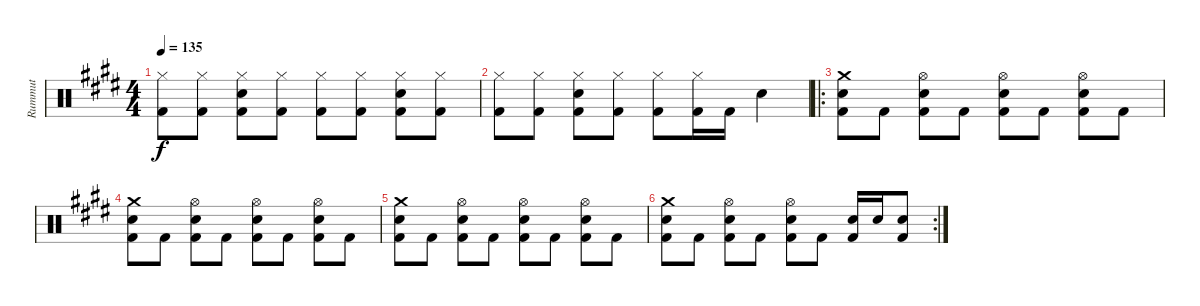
\track ("Rummut" "Rummut") {instrument percussion}
\staff {score}
\articulation defaults
\ts (4 4)
\tempo 135
\clef neutral
\ks e
("Hi-Hat (closed)" "Kick (hit) 2").8{dy f} ("Hi-Hat (closed)" "Kick (hit) 2").8 ("Hi-Hat (closed)" "Snare (hit) 2" "Kick (hit) 2").8 ("Hi-Hat (closed)" "Kick (hit) 2").8 ("Hi-Hat (closed)" "Kick (hit) 2").8 ("Hi-Hat (closed)" "Kick (hit) 2").8 ("Hi-Hat (closed)" "Snare (hit) 2" "Kick (hit) 2").8 ("Hi-Hat (closed)" "Kick (hit) 2").8 |
("Hi-Hat (closed)" "Kick (hit) 2").8 ("Hi-Hat (closed)" "Kick (hit) 2").8 ("Hi-Hat (closed)" "Snare (hit) 2" "Kick (hit) 2").8 ("Hi-Hat (closed)" "Kick (hit) 2").8 ("Hi-Hat (closed)" "Kick (hit) 2").8 ("Hi-Hat (closed)" "Kick (hit) 2").16 "Kick (hit) 2".16 "Snare (hit) 2".4 |
\ro
("Crash medium (hit)" "Snare (hit) 2" "Kick (hit) 2").8 "Kick (hit) 2".8 ("Hi-Hat (open)" "Snare (hit) 2" "Kick (hit) 2").8 "Kick (hit) 2".8 ("Hi-Hat (open)" "Snare (hit) 2" "Kick (hit) 2").8 "Kick (hit) 2".8 ("Hi-Hat (open)" "Snare (hit) 2" "Kick (hit) 2").8 "Kick (hit) 2".8 |
("Crash medium (hit)" "Snare (hit) 2" "Kick (hit) 2").8 "Kick (hit) 2".8 ("Hi-Hat (open)" "Snare (hit) 2" "Kick (hit) 2").8 "Kick (hit) 2".8 ("Hi-Hat (open)" "Snare (hit) 2" "Kick (hit) 2").8 "Kick (hit) 2".8 ("Hi-Hat (open)" "Snare (hit) 2" "Kick (hit) 2").8 "Kick (hit) 2".8 |
("Crash medium (hit)" "Snare (hit) 2" "Kick (hit) 2").8 "Kick (hit) 2".8 ("Hi-Hat (open)" "Snare (hit) 2" "Kick (hit) 2").8 "Kick (hit) 2".8 ("Hi-Hat (open)" "Snare (hit) 2" "Kick (hit) 2").8 "Kick (hit) 2".8 ("Hi-Hat (open)" "Snare (hit) 2" "Kick (hit) 2").8 "Kick (hit) 2".8 |
\rc 2
("Crash medium (hit)" "Snare (hit) 2" "Kick (hit) 2").8 "Kick (hit) 2".8 ("Hi-Hat (open)" "Snare (hit) 2" "Kick (hit) 2").8 "Kick (hit) 2".8 ("Hi-Hat (open)" "Snare (hit) 2" "Kick (hit) 2").8 "Kick (hit) 2".8 ("Snare (hit) 2" "Kick (hit) 2").16 "Snare (hit) 2".16 ("Snare (hit) 2" "Kick (hit) 2").8
